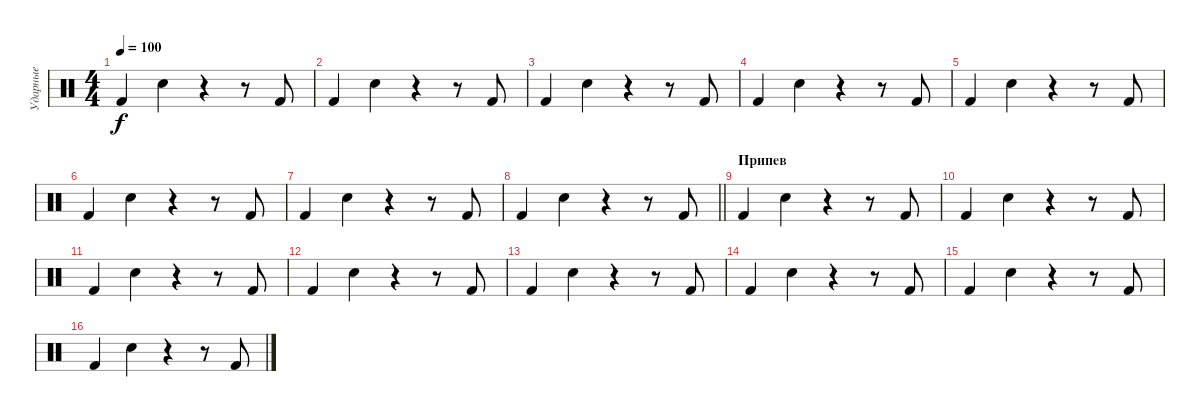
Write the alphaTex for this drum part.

\track ("Ударные" "Ударные") {instrument percussion}
\staff {score}
\articulation defaults
\ts (4 4)
\tempo 100
\clef neutral
\ks c "Kick (hit) 2".4{dy f} "Hand Clap (hit)".4
r.4 r.8 "Kick (hit) 2".8 |
"Kick (hit) 2".4 "Hand Clap (hit)".4 r.4 r.8 "Kick (hit) 2".8 |
"Kick (hit) 2".4 "Hand Clap (hit)".4 r.4 r.8 "Kick (hit) 2".8 |
"Kick (hit) 2".4 "Hand Clap (hit)".4 r.4 r.8 "Kick (hit) 2".8 |
"Kick (hit) 2".4 "Hand Clap (hit)".4 r.4 r.8 "Kick (hit) 2".8 |
"Kick (hit) 2".4 "Hand Clap (hit)".4 r.4 r.8 "Kick (hit) 2".8 |
"Kick (hit) 2".4 "Hand Clap (hit)".4 r.4 r.8 "Kick (hit) 2".8 |
\barLineRight lightlight "Kick (hit) 2".4 "Hand Clap (hit)".4
r.4 r.8 "Kick (hit) 2".8 |
\section ("" "Припев")
"Kick (hit) 2".4 "Hand Clap (hit)".4 r.4 r.8 "Kick (hit) 2".8 |
"Kick (hit) 2".4 "Hand Clap (hit)".4 r.4 r.8 "Kick (hit) 2".8 |
"Kick (hit) 2".4 "Hand Clap (hit)".4 r.4 r.8 "Kick (hit) 2".8 |
"Kick (hit) 2".4 "Hand Clap (hit)".4 r.4 r.8 "Kick (hit) 2".8 |
"Kick (hit) 2".4 "Hand Clap (hit)".4 r.4 r.8 "Kick (hit) 2".8 |
"Kick (hit) 2".4 "Hand Clap (hit)".4 r.4 r.8 "Kick (hit) 2".8 |
"Kick (hit) 2".4 "Hand Clap (hit)".4 r.4 r.8 "Kick (hit) 2".8 |
"Kick (hit) 2".4 "Hand Clap (hit)".4 r.4 r.8 "Kick (hit) 2".8
